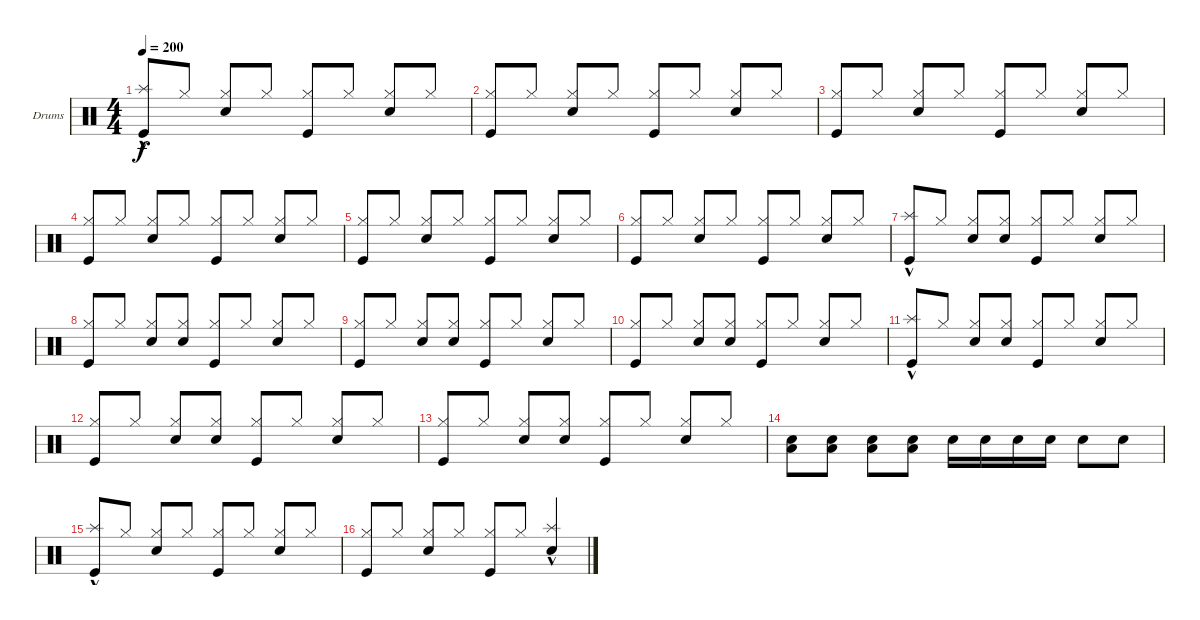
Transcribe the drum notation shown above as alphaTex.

\defaultSystemsLayout 4
\bracketExtendMode groupsimilarinstruments
\firstSystemTrackNameOrientation horizontal
\otherSystemsTrackNameOrientation horizontal
\track ("Drumkit" "Drums") {instrument percussion}
\staff {score}
\articulation defaults
\ts (4 4)
\tempo 200
\clef neutral
\ks c
("Kick (hit)" "Splash (hit)"{hac}).8{dy f} "Hi-Hat (closed)".8 ("Hi-Hat (closed)" "Snare (hit) 2").8{beam invert} "Hi-Hat (closed)".8 ("Hi-Hat (closed)" "Kick (hit)").8{beam invert} "Hi-Hat (closed)".8 ("Hi-Hat (closed)" "Snare (hit) 2").8{beam invert} "Hi-Hat (closed)".8 |
("Hi-Hat (closed)" "Kick (hit)").8{beam invert} "Hi-Hat (closed)".8 ("Hi-Hat (closed)" "Snare (hit) 2").8{beam invert} "Hi-Hat (closed)".8 ("Hi-Hat (closed)" "Kick (hit)").8{beam invert} "Hi-Hat (closed)".8 ("Hi-Hat (closed)" "Snare (hit) 2").8{beam invert} "Hi-Hat (closed)".8 |
("Hi-Hat (closed)" "Kick (hit)").8{beam invert} "Hi-Hat (closed)".8 ("Hi-Hat (closed)" "Snare (hit) 2").8{beam invert} "Hi-Hat (closed)".8 ("Hi-Hat (closed)" "Kick (hit)").8{beam invert} "Hi-Hat (closed)".8 ("Hi-Hat (closed)" "Snare (hit) 2").8{beam invert} "Hi-Hat (closed)".8 |
("Hi-Hat (closed)" "Kick (hit)").8{beam invert} "Hi-Hat (closed)".8 ("Hi-Hat (closed)" "Snare (hit) 2").8{beam invert} "Hi-Hat (closed)".8 ("Hi-Hat (closed)" "Kick (hit)").8{beam invert} "Hi-Hat (closed)".8 ("Hi-Hat (closed)" "Snare (hit) 2").8{beam invert} "Hi-Hat (closed)".8 |
("Hi-Hat (closed)" "Kick (hit)").8{beam invert} "Hi-Hat (closed)".8 ("Hi-Hat (closed)" "Snare (hit) 2").8{beam invert} "Hi-Hat (closed)".8 ("Hi-Hat (closed)" "Kick (hit)").8{beam invert} "Hi-Hat (closed)".8 ("Hi-Hat (closed)" "Snare (hit) 2").8{beam invert} "Hi-Hat (closed)".8 |
("Hi-Hat (closed)" "Kick (hit)").8{beam invert} "Hi-Hat (closed)".8 ("Hi-Hat (closed)" "Snare (hit) 2").8{beam invert} "Hi-Hat (closed)".8 ("Hi-Hat (closed)" "Kick (hit)").8{beam invert} "Hi-Hat (closed)".8 ("Hi-Hat (closed)" "Snare (hit) 2").8{beam invert} "Hi-Hat (closed)".8 |
("Kick (hit)" "Splash (hit)"{hac}).8 "Hi-Hat (closed)".8 ("Hi-Hat (closed)" "Snare (hit) 2").8{beam invert} ("Hi-Hat (closed)" "Snare (hit) 2").8 ("Hi-Hat (closed)" "Kick (hit)").8{beam invert} "Hi-Hat (closed)".8 ("Hi-Hat (closed)" "Snare (hit) 2").8{beam invert} "Hi-Hat (closed)".8 |
("Hi-Hat (closed)" "Kick (hit)").8{beam invert} "Hi-Hat (closed)".8 ("Hi-Hat (closed)" "Snare (hit) 2").8{beam invert} ("Hi-Hat (closed)" "Snare (hit) 2").8 ("Hi-Hat (closed)" "Kick (hit)").8{beam invert} "Hi-Hat (closed)".8 ("Hi-Hat (closed)" "Snare (hit) 2").8{beam invert} "Hi-Hat (closed)".8 |
("Hi-Hat (closed)" "Kick (hit)").8{beam invert} "Hi-Hat (closed)".8 ("Hi-Hat (closed)" "Snare (hit) 2").8{beam invert} ("Hi-Hat (closed)" "Snare (hit) 2").8 ("Hi-Hat (closed)" "Kick (hit)").8{beam invert} "Hi-Hat (closed)".8 ("Hi-Hat (closed)" "Snare (hit) 2").8{beam invert} "Hi-Hat (closed)".8 |
("Hi-Hat (closed)" "Kick (hit)").8{beam invert} "Hi-Hat (closed)".8 ("Hi-Hat (closed)" "Snare (hit) 2").8{beam invert} ("Hi-Hat (closed)" "Snare (hit) 2").8 ("Hi-Hat (closed)" "Kick (hit)").8{beam invert} "Hi-Hat (closed)".8 ("Hi-Hat (closed)" "Snare (hit) 2").8{beam invert} "Hi-Hat (closed)".8 |
("Kick (hit)" "Splash (hit)"{hac}).8 "Hi-Hat (closed)".8 ("Hi-Hat (closed)" "Snare (hit) 2").8{beam invert} ("Hi-Hat (closed)" "Snare (hit) 2").8 ("Hi-Hat (closed)" "Kick (hit)").8{beam invert} "Hi-Hat (closed)".8 ("Hi-Hat (closed)" "Snare (hit) 2").8{beam invert} "Hi-Hat (closed)".8 |
("Hi-Hat (closed)" "Kick (hit)").8{beam invert} "Hi-Hat (closed)".8 ("Hi-Hat (closed)" "Snare (hit) 2").8{beam invert} ("Hi-Hat (closed)" "Snare (hit) 2").8 ("Hi-Hat (closed)" "Kick (hit)").8{beam invert} "Hi-Hat (closed)".8 ("Hi-Hat (closed)" "Snare (hit) 2").8{beam invert} "Hi-Hat (closed)".8 |
("Hi-Hat (closed)" "Kick (hit)").8{beam invert} "Hi-Hat (closed)".8 ("Hi-Hat (closed)" "Snare (hit) 2").8{beam invert} ("Hi-Hat (closed)" "Snare (hit) 2").8 ("Hi-Hat (closed)" "Kick (hit)").8{beam invert} "Hi-Hat (closed)".8 ("Hi-Hat (closed)" "Snare (hit) 2").8{beam invert} "Hi-Hat (closed)".8 |
("Low Tom (hit)" "Snare (hit) 2").8 ("Low Tom (hit)" "Snare (hit) 2").8 ("Low Tom (hit)" "Snare (hit) 2").8 ("Low Tom (hit)" "Snare (hit) 2").8 "Snare (hit) 2".16 "Snare (hit) 2".16 "Snare (hit) 2".16 "Snare (hit) 2".16 "Snare (hit) 2".8 "Snare (hit) 2".8 |
("Kick (hit)" "Splash (hit)"{hac}).8 "Hi-Hat (closed)".8 ("Hi-Hat (closed)" "Snare (hit) 2").8{beam invert} "Hi-Hat (closed)".8 ("Hi-Hat (closed)" "Kick (hit)").8{beam invert} "Hi-Hat (closed)".8 ("Hi-Hat (closed)" "Snare (hit) 2").8{beam invert} "Hi-Hat (closed)".8 |
("Hi-Hat (closed)" "Kick (hit)").8{beam invert} "Hi-Hat (closed)".8 ("Hi-Hat (closed)" "Snare (hit) 2").8{beam invert} "Hi-Hat (closed)".8 ("Hi-Hat (closed)" "Kick (hit)").8{beam invert} "Hi-Hat (closed)".8 ("Snare (hit) 2" "Splash (hit)"{hac}).4{beam invert}
